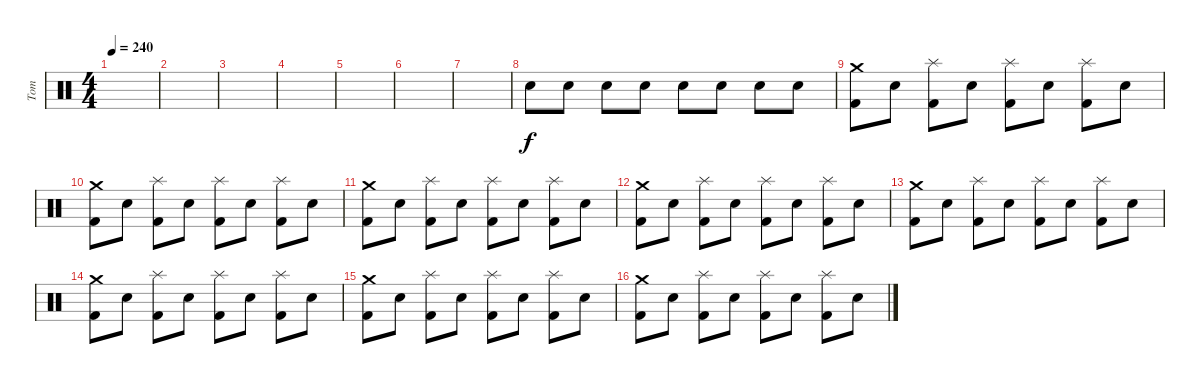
\track ("Tom" "Tom") {instrument percussion}
\staff {score}
\articulation defaults
\ts (4 4)
\tempo 240
\clef neutral
\ks c
|
|
|
|
|
|
|
"Electric Snare (hit)".8 "Electric Snare (hit)".8 "Electric Snare (hit)".8 "Electric Snare (hit)".8 "Electric Snare (hit)".8 "Electric Snare (hit)".8 "Electric Snare (hit)".8 "Electric Snare (hit)".8 |
("Crash medium (hit)" "Kick (hit) 2").8 "Electric Snare (hit)".8 ("Splash (hit)" "Kick (hit) 2").8 "Electric Snare (hit)".8 ("Splash (hit)" "Kick (hit) 2").8 "Electric Snare (hit)".8 ("Splash (hit)" "Kick (hit) 2").8 "Electric Snare (hit)".8 |
("Crash medium (hit)" "Kick (hit) 2").8 "Electric Snare (hit)".8 ("Splash (hit)" "Kick (hit) 2").8 "Electric Snare (hit)".8 ("Splash (hit)" "Kick (hit) 2").8 "Electric Snare (hit)".8 ("Splash (hit)" "Kick (hit) 2").8 "Electric Snare (hit)".8 |
("Crash medium (hit)" "Kick (hit) 2").8 "Electric Snare (hit)".8 ("Splash (hit)" "Kick (hit) 2").8 "Electric Snare (hit)".8 ("Splash (hit)" "Kick (hit) 2").8 "Electric Snare (hit)".8 ("Splash (hit)" "Kick (hit) 2").8 "Electric Snare (hit)".8 |
("Crash medium (hit)" "Kick (hit) 2").8 "Electric Snare (hit)".8 ("Splash (hit)" "Kick (hit) 2").8 "Electric Snare (hit)".8 ("Splash (hit)" "Kick (hit) 2").8 "Electric Snare (hit)".8 ("Splash (hit)" "Kick (hit) 2").8 "Electric Snare (hit)".8 |
("Crash medium (hit)" "Kick (hit) 2").8 "Electric Snare (hit)".8 ("Splash (hit)" "Kick (hit) 2").8 "Electric Snare (hit)".8 ("Splash (hit)" "Kick (hit) 2").8 "Electric Snare (hit)".8 ("Splash (hit)" "Kick (hit) 2").8 "Electric Snare (hit)".8 |
("Crash medium (hit)" "Kick (hit) 2").8 "Electric Snare (hit)".8 ("Splash (hit)" "Kick (hit) 2").8 "Electric Snare (hit)".8 ("Splash (hit)" "Kick (hit) 2").8 "Electric Snare (hit)".8 ("Splash (hit)" "Kick (hit) 2").8 "Electric Snare (hit)".8 |
("Crash medium (hit)" "Kick (hit) 2").8 "Electric Snare (hit)".8 ("Splash (hit)" "Kick (hit) 2").8 "Electric Snare (hit)".8 ("Splash (hit)" "Kick (hit) 2").8 "Electric Snare (hit)".8 ("Splash (hit)" "Kick (hit) 2").8 "Electric Snare (hit)".8 |
("Crash medium (hit)" "Kick (hit) 2").8 "Electric Snare (hit)".8 ("Splash (hit)" "Kick (hit) 2").8 "Electric Snare (hit)".8 ("Splash (hit)" "Kick (hit) 2").8 "Electric Snare (hit)".8 ("Splash (hit)" "Kick (hit) 2").8 "Electric Snare (hit)".8
